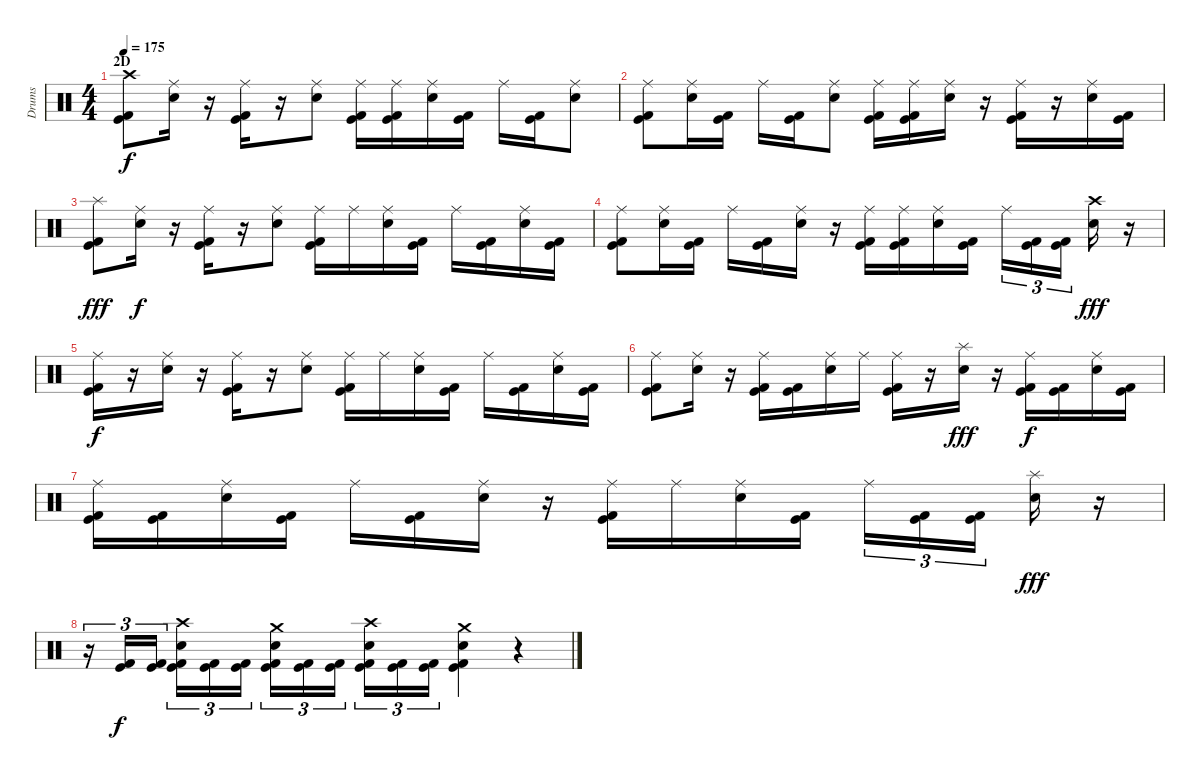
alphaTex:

\track ("Drums" "Drums") {instrument percussion}
\staff {score}
\articulation defaults
\ts (4 4)
\section ("" "2D")
\tempo 175
\clef neutral
\ks c
("Crash high (hit)" "Kick (hit)" "Kick (hit) 2").8{dy f} ("Ride (middle)" "Electric Snare (hit)").16 r.16 ("Ride (middle)" "Kick (hit)" "Kick (hit) 2").16 r.16 ("Ride (middle)" "Electric Snare (hit)").8 ("Ride (middle)" "Kick (hit)" "Kick (hit) 2").16 ("Ride (middle)" "Kick (hit)" "Kick (hit) 2").16 ("Ride (middle)" "Electric Snare (hit)").16 ("Kick (hit)" "Kick (hit) 2").16 "Ride (middle)".16 ("Kick (hit)" "Kick (hit) 2").16 ("Ride (middle)" "Electric Snare (hit)").8 |
("Ride (middle)" "Kick (hit)" "Kick (hit) 2").8 ("Ride (middle)" "Electric Snare (hit)").16 ("Kick (hit)" "Kick (hit) 2").16 "Ride (middle)".16 ("Kick (hit)" "Kick (hit) 2").16 ("Ride (middle)" "Electric Snare (hit)").8 ("Ride (middle)" "Kick (hit)" "Kick (hit) 2").16 ("Ride (middle)" "Kick (hit)" "Kick (hit) 2").16 ("Ride (middle)" "Electric Snare (hit)").16 r.16 ("Ride (middle)" "Kick (hit)" "Kick (hit) 2").16 r.16 ("Ride (middle)" "Electric Snare (hit)").16 ("Kick (hit)" "Kick (hit) 2").16 |
("Splash (hit)" "Kick (hit)" "Kick (hit) 2").8{dy fff} ("Ride (middle)" "Electric Snare (hit)").16{dy f} r.16 ("Ride (middle)" "Kick (hit)" "Kick (hit) 2").16 r.16 ("Ride (middle)" "Electric Snare (hit)").8 ("Ride (middle)" "Kick (hit)" "Kick (hit) 2").16 "Ride (middle)".16 ("Ride (middle)" "Electric Snare (hit)").16 ("Kick (hit)" "Kick (hit) 2").16 "Ride (middle)".16 ("Kick (hit)" "Kick (hit) 2").16 ("Ride (middle)" "Electric Snare (hit)").16 ("Kick (hit)" "Kick (hit) 2").16 |
("Ride (middle)" "Kick (hit)" "Kick (hit) 2").8 ("Ride (middle)" "Electric Snare (hit)").16 ("Kick (hit)" "Kick (hit) 2").16 "Ride (middle)".16 ("Kick (hit)" "Kick (hit) 2").16 ("Ride (middle)" "Electric Snare (hit)").16 r.16 ("Ride (middle)" "Kick (hit)" "Kick (hit) 2").16 ("Ride (middle)" "Kick (hit)" "Kick (hit) 2").16 ("Ride (middle)" "Electric Snare (hit)").16 ("Kick (hit)" "Kick (hit) 2").16 "Ride (middle)".16{tu (3 2)} ("Kick (hit)" "Kick (hit) 2").16{tu (3 2)} ("Kick (hit)" "Kick (hit) 2").16{tu (3 2)} ("Crash high (hit)" "Electric Snare (hit)").16{dy fff} r.16 |
("Ride (middle)" "Kick (hit)" "Kick (hit) 2").16{dy f} r.16 ("Ride (middle)" "Electric Snare (hit)").16 r.16 ("Ride (middle)" "Kick (hit)" "Kick (hit) 2").16 r.16 ("Ride (middle)" "Electric Snare (hit)").8 ("Ride (middle)" "Kick (hit)" "Kick (hit) 2").16 "Ride (middle)".16 ("Ride (middle)" "Electric Snare (hit)").16 ("Kick (hit)" "Kick (hit) 2").16 "Ride (middle)".16 ("Kick (hit)" "Kick (hit) 2").16 ("Ride (middle)" "Electric Snare (hit)").16 ("Kick (hit)" "Kick (hit) 2").16 |
("Ride (middle)" "Kick (hit)" "Kick (hit) 2").8 ("Ride (middle)" "Electric Snare (hit)").16 r.16 ("Ride (middle)" "Kick (hit)" "Kick (hit) 2").16 ("Kick (hit)" "Kick (hit) 2").16 ("Ride (middle)" "Electric Snare (hit)").16 "Ride (middle)".16 ("Ride (middle)" "Kick (hit)" "Kick (hit) 2").16 r.16 ("Splash (hit)" "Electric Snare (hit)").16{dy fff} r.16 ("Ride (middle)" "Kick (hit)" "Kick (hit) 2").16{dy f} ("Kick (hit)" "Kick (hit) 2").16 ("Ride (middle)" "Electric Snare (hit)").16 ("Kick (hit)" "Kick (hit) 2").16 |
("Ride (middle)" "Kick (hit)" "Kick (hit) 2").16 ("Kick (hit)" "Kick (hit) 2").16 ("Ride (middle)" "Electric Snare (hit)").16 ("Kick (hit)" "Kick (hit) 2").16 "Ride (middle)".16 ("Kick (hit)" "Kick (hit) 2").16 ("Ride (middle)" "Electric Snare (hit)").16 r.16 ("Ride (middle)" "Kick (hit)" "Kick (hit) 2").16 "Ride (middle)".16 ("Ride (middle)" "Electric Snare (hit)").16 ("Kick (hit)" "Kick (hit) 2").16 "Ride (middle)".16{tu (3 2)} ("Kick (hit)" "Kick (hit) 2").16{tu (3 2)} ("Kick (hit)" "Kick (hit) 2").16{tu (3 2)} ("Splash (hit)" "Electric Snare (hit)").16{dy fff} r.16 |
r.16{tu (3 2)} ("Kick (hit)" "Kick (hit) 2").16{tu (3 2) dy f} ("Kick (hit)" "Kick (hit) 2").16{tu (3 2)} ("Crash high (hit)" "Electric Snare (hit)" "Kick (hit)" "Kick (hit) 2").16{tu (3 2)} ("Kick (hit)" "Kick (hit) 2").16{tu (3 2)} ("Kick (hit)" "Kick (hit) 2").16{tu (3 2)} ("Crash medium (hit)" "Electric Snare (hit)" "Kick (hit)" "Kick (hit) 2").16{tu (3 2)} ("Kick (hit)" "Kick (hit) 2").16{tu (3 2)} ("Kick (hit)" "Kick (hit) 2").16{tu (3 2)} ("Crash high (hit)" "Electric Snare (hit)" "Kick (hit)" "Kick (hit) 2").16{tu (3 2)} ("Kick (hit)" "Kick (hit) 2").16{tu (3 2)} ("Kick (hit)" "Kick (hit) 2").16{tu (3 2)} ("Crash medium (hit)" "Electric Snare (hit)" "Kick (hit)" "Kick (hit) 2").4 r.4
